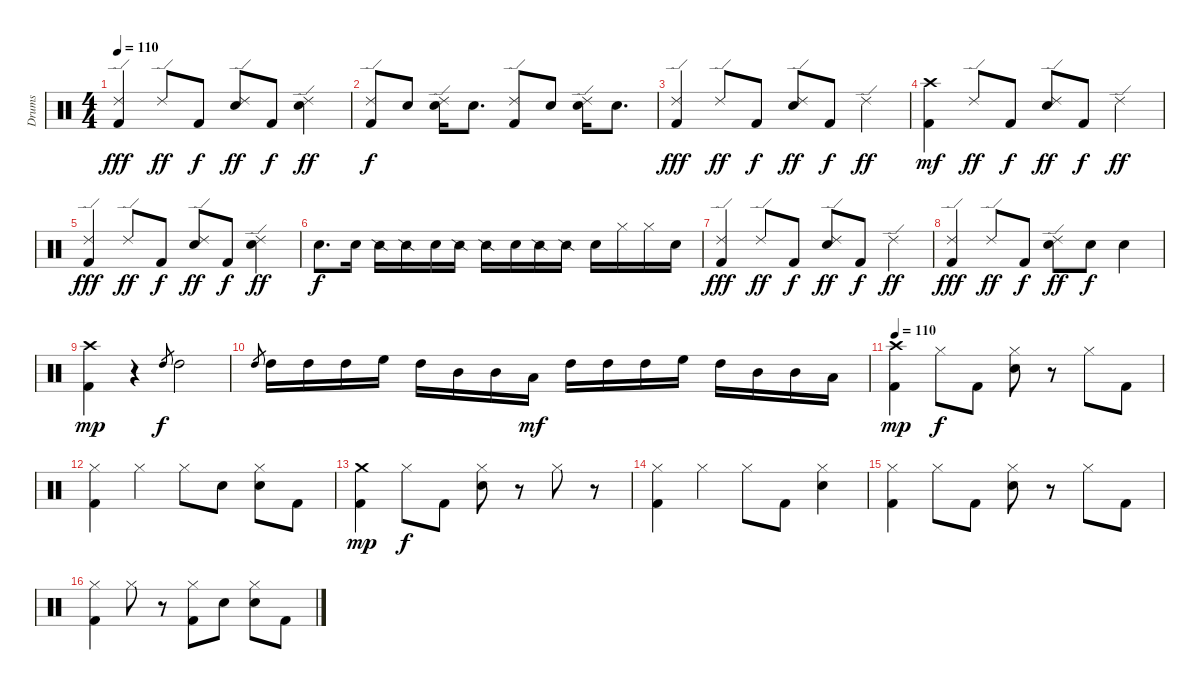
\track ("Drums" "Drums") {instrument percussion}
\staff {score}
\articulation defaults
\ts (4 4)
\tempo 110
\clef neutral
\ks c
("Ride (edge) 2" "Kick (hit) 2").4{dy fff} "Ride (edge) 2".8{dy ff} "Kick (hit) 2".8{dy f} ("Ride (edge) 2" "Snare (hit) 2").8{dy ff} "Kick (hit) 2".8{dy f} ("Ride (edge) 2" "Snare (hit) 2").4{dy ff} |
("Ride (edge) 2" "Kick (hit) 2").8{dy f} "Snare (hit) 2".8 ("Ride (edge) 2" "Snare (hit) 2").16 "Snare (hit) 2".8{d} ("Ride (edge) 2" "Kick (hit) 2").8 "Snare (hit) 2".8 ("Ride (edge) 2" "Snare (hit) 2").16 "Snare (hit) 2".8{d} |
("Ride (edge) 2" "Kick (hit) 2").4{dy fff} "Ride (edge) 2".8{dy ff} "Kick (hit) 2".8{dy f} ("Ride (edge) 2" "Snare (hit) 2").8{dy ff} "Kick (hit) 2".8{dy f} "Ride (edge) 2".4{dy ff} |
("Crash high (hit)" "Kick (hit) 2").4{dy mf} "Ride (edge) 2".8{dy ff} "Kick (hit) 2".8{dy f} ("Ride (edge) 2" "Snare (hit) 2").8{dy ff} "Kick (hit) 2".8{dy f} "Ride (edge) 2".4{dy ff} |
("Ride (edge) 2" "Kick (hit) 2").4{dy fff} "Ride (edge) 2".8{dy ff} "Kick (hit) 2".8{dy f} ("Ride (edge) 2" "Snare (hit) 2").8{dy ff} "Kick (hit) 2".8{dy f} ("Ride (edge) 2" "Snare (hit) 2").4{dy ff} |
"Snare (hit) 2".8{d dy f} "Snare (hit) 2".16 "Snare (side stick) 2".16 "Snare (side stick) 2".16 "Snare (hit) 2".16 "Snare (side stick) 2".16 "Snare (side stick) 2".16 "Snare (hit) 2".16 "Snare (side stick) 2".16 "Snare (side stick) 2".16 "Snare (hit) 2".16 "Hi-Hat (closed)".16 "Hi-Hat (closed)".16 "Snare (hit) 2".16 |
("Ride (edge) 2" "Kick (hit) 2").4{dy fff} "Ride (edge) 2".8{dy ff} "Kick (hit) 2".8{dy f} ("Ride (edge) 2" "Snare (hit) 2").8{dy ff} "Kick (hit) 2".8{dy f} "Ride (edge) 2".4{dy ff} |
("Ride (edge) 2" "Kick (hit) 2").4{dy fff} "Ride (edge) 2".8{dy ff} "Kick (hit) 2".8{dy f} ("Ride (edge) 2" "Snare (hit) 2").8{dy ff} "Snare (hit) 2".8{dy f} "Snare (hit) 2".4 |
("Crash high (hit)" "Kick (hit) 2").4{dy mp} r.4 "High Tom (hit)".8{gr dy f} "High Tom (hit)".2 |
"High Tom (hit)".8{gr} "High Tom (hit)".16 "High Tom (hit)".16 "High Tom (hit)".16 "High Floor Tom (hit)".16 "High Tom (hit)".16 "Mid Tom (hit)".16 "Mid Tom (hit)".16 "Low Tom (hit)".16{dy mf} "High Tom (hit)".16 "High Tom (hit)".16 "High Tom (hit)".16 "High Floor Tom (hit)".16 "High Tom (hit)".16 "Mid Tom (hit)".16 "Mid Tom (hit)".16 "Low Tom (hit)".16 |
\tempo 110
("Crash high (hit)" "Kick (hit) 2").4{dy mp} "Hi-Hat (closed)".8{dy f} "Kick (hit) 2".8 ("Hi-Hat (closed)" "Snare (hit) 2").8 r.8 "Hi-Hat (closed)".8 "Kick (hit) 2".8 |
("Hi-Hat (closed)" "Kick (hit) 2").4 "Hi-Hat (closed)".4 "Hi-Hat (closed)".8 "Snare (hit) 2".8 ("Hi-Hat (closed)" "Snare (hit) 2").8 "Kick (hit) 2".8 |
("Crash medium (hit)" "Kick (hit) 2").4{dy mp} "Hi-Hat (closed)".8{dy f} "Kick (hit) 2".8 ("Hi-Hat (closed)" "Snare (hit) 2").8 r.8 "Hi-Hat (closed)".8 r.8 |
("Hi-Hat (closed)" "Kick (hit) 2").4 "Hi-Hat (closed)".4 "Hi-Hat (closed)".8 "Kick (hit) 2".8 ("Hi-Hat (closed)" "Snare (hit) 2").4 |
("Hi-Hat (closed)" "Kick (hit) 2").4 "Hi-Hat (closed)".8 "Kick (hit) 2".8 ("Hi-Hat (closed)" "Snare (hit) 2").8 r.8 "Hi-Hat (closed)".8 "Kick (hit) 2".8 |
("Hi-Hat (closed)" "Kick (hit) 2").4 "Hi-Hat (closed)".8 r.8 ("Hi-Hat (closed)" "Kick (hit) 2").8 "Snare (hit) 2".8 ("Hi-Hat (closed)" "Snare (hit) 2").8 "Kick (hit) 2".8
